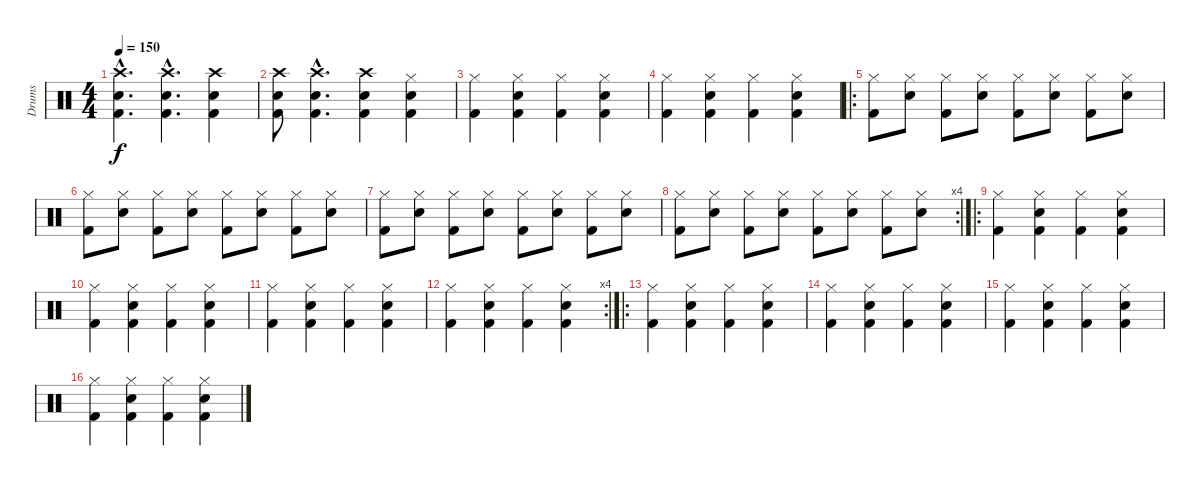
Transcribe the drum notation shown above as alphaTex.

\track ("Drums" "Drums") {instrument percussion}
\staff {score}
\articulation defaults
\ts (4 4)
\tempo 150
\clef neutral
\ks c
("Crash high (hit)"{hac} "Kick (hit) 2"{hac} "Electric Snare (hit)"{hac}).4{d dy f} ("Crash high (hit)"{hac} "Kick (hit) 2"{hac} "Electric Snare (hit)"{hac}).4{d} ("Crash high (hit)" "Kick (hit) 2" "Electric Snare (hit)").4 |
("Crash high (hit)" "Kick (hit) 2" "Electric Snare (hit)").8 ("Crash high (hit)"{hac} "Kick (hit) 2"{hac} "Electric Snare (hit)"{hac}).4{d} ("Crash high (hit)" "Kick (hit) 2" "Electric Snare (hit)").4 ("Hi-Hat (closed)" "Kick (hit) 2" "Electric Snare (hit)").4 |
("Hi-Hat (closed)" "Kick (hit) 2").4 ("Hi-Hat (closed)" "Electric Snare (hit)" "Kick (hit) 2").4 ("Hi-Hat (closed)" "Kick (hit) 2").4 ("Hi-Hat (closed)" "Electric Snare (hit)" "Kick (hit) 2").4 |
("Hi-Hat (closed)" "Kick (hit) 2").4 ("Hi-Hat (closed)" "Electric Snare (hit)" "Kick (hit) 2").4 ("Hi-Hat (closed)" "Kick (hit) 2").4 ("Hi-Hat (closed)" "Electric Snare (hit)" "Kick (hit) 2").4 |
\ro
("Hi-Hat (closed)" "Kick (hit) 2").8 ("Hi-Hat (closed)" "Electric Snare (hit)").8 ("Hi-Hat (closed)" "Kick (hit) 2").8 ("Hi-Hat (closed)" "Electric Snare (hit)").8 ("Hi-Hat (closed)" "Kick (hit) 2").8 ("Hi-Hat (closed)" "Electric Snare (hit)").8 ("Hi-Hat (closed)" "Kick (hit) 2").8 ("Hi-Hat (closed)" "Electric Snare (hit)").8 |
("Hi-Hat (closed)" "Kick (hit) 2").8 ("Hi-Hat (closed)" "Electric Snare (hit)").8 ("Hi-Hat (closed)" "Kick (hit) 2").8 ("Hi-Hat (closed)" "Electric Snare (hit)").8 ("Hi-Hat (closed)" "Kick (hit) 2").8 ("Hi-Hat (closed)" "Electric Snare (hit)").8 ("Hi-Hat (closed)" "Kick (hit) 2").8 ("Hi-Hat (closed)" "Electric Snare (hit)").8 |
("Hi-Hat (closed)" "Kick (hit) 2").8 ("Hi-Hat (closed)" "Electric Snare (hit)").8 ("Hi-Hat (closed)" "Kick (hit) 2").8 ("Hi-Hat (closed)" "Electric Snare (hit)").8 ("Hi-Hat (closed)" "Kick (hit) 2").8 ("Hi-Hat (closed)" "Electric Snare (hit)").8 ("Hi-Hat (closed)" "Kick (hit) 2").8 ("Hi-Hat (closed)" "Electric Snare (hit)").8 |
\rc 4
("Hi-Hat (closed)" "Kick (hit) 2").8 ("Hi-Hat (closed)" "Electric Snare (hit)").8 ("Hi-Hat (closed)" "Kick (hit) 2").8 ("Hi-Hat (closed)" "Electric Snare (hit)").8 ("Hi-Hat (closed)" "Kick (hit) 2").8 ("Hi-Hat (closed)" "Electric Snare (hit)").8 ("Hi-Hat (closed)" "Kick (hit) 2").8 ("Hi-Hat (closed)" "Electric Snare (hit)").8 |
\ro
("Hi-Hat (closed)" "Kick (hit) 2").4 ("Hi-Hat (closed)" "Electric Snare (hit)" "Kick (hit) 2").4 ("Hi-Hat (closed)" "Kick (hit) 2").4 ("Hi-Hat (closed)" "Electric Snare (hit)" "Kick (hit) 2").4 |
("Hi-Hat (closed)" "Kick (hit) 2").4 ("Hi-Hat (closed)" "Electric Snare (hit)" "Kick (hit) 2").4 ("Hi-Hat (closed)" "Kick (hit) 2").4 ("Hi-Hat (closed)" "Electric Snare (hit)" "Kick (hit) 2").4 |
("Hi-Hat (closed)" "Kick (hit) 2").4 ("Hi-Hat (closed)" "Electric Snare (hit)" "Kick (hit) 2").4 ("Hi-Hat (closed)" "Kick (hit) 2").4 ("Hi-Hat (closed)" "Electric Snare (hit)" "Kick (hit) 2").4 |
\rc 4
("Hi-Hat (closed)" "Kick (hit) 2").4 ("Hi-Hat (closed)" "Electric Snare (hit)" "Kick (hit) 2").4 ("Hi-Hat (closed)" "Kick (hit) 2").4 ("Hi-Hat (closed)" "Electric Snare (hit)" "Kick (hit) 2").4 |
\ro
("Hi-Hat (closed)" "Kick (hit) 2").4 ("Hi-Hat (closed)" "Electric Snare (hit)" "Kick (hit) 2").4 ("Hi-Hat (closed)" "Kick (hit) 2").4 ("Hi-Hat (closed)" "Electric Snare (hit)" "Kick (hit) 2").4 |
("Hi-Hat (closed)" "Kick (hit) 2").4 ("Hi-Hat (closed)" "Electric Snare (hit)" "Kick (hit) 2").4 ("Hi-Hat (closed)" "Kick (hit) 2").4 ("Hi-Hat (closed)" "Electric Snare (hit)" "Kick (hit) 2").4 |
("Hi-Hat (closed)" "Kick (hit) 2").4 ("Hi-Hat (closed)" "Electric Snare (hit)" "Kick (hit) 2").4 ("Hi-Hat (closed)" "Kick (hit) 2").4 ("Hi-Hat (closed)" "Electric Snare (hit)" "Kick (hit) 2").4 |
("Hi-Hat (closed)" "Kick (hit) 2").4 ("Hi-Hat (closed)" "Electric Snare (hit)" "Kick (hit) 2").4 ("Hi-Hat (closed)" "Kick (hit) 2").4 ("Hi-Hat (closed)" "Electric Snare (hit)" "Kick (hit) 2").4
